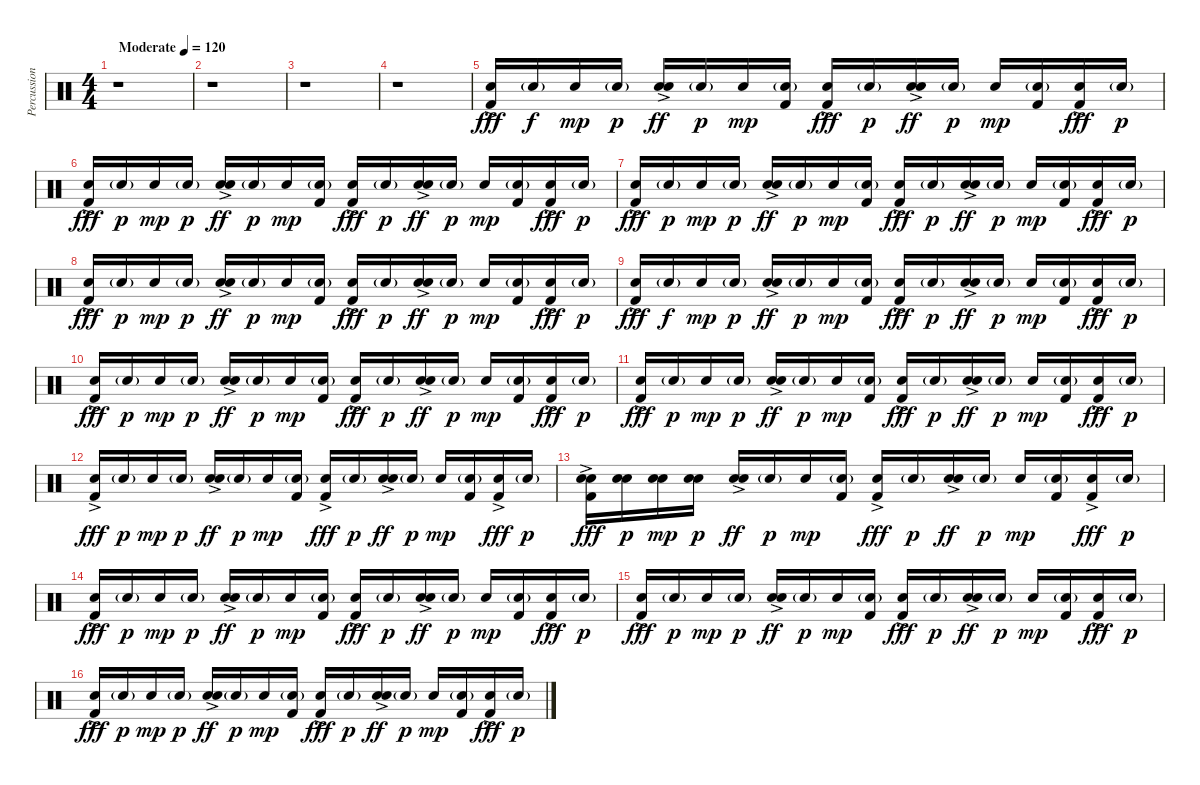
\track ("Percussion" "Percussion") {instrument percussion}
\staff {score}
\articulation defaults
\ts (4 4)
\tempo (120 "Moderate")
\clef neutral
\ks c
r.1{dy fff} |
r.1 |
r.1 |
r.1 |
("Electric Snare (hit)"{ac} "Kick (hit) 2"{ac}).16 "Electric Snare (hit)"{g}.16{dy f} "Electric Snare (hit)".16{dy mp} "Electric Snare (hit)"{g}.16{dy p} ("Electric Snare (hit)"{ac} "Snare (hit) 2").16{dy ff} "Electric Snare (hit)"{g}.16{dy p} "Electric Snare (hit)".16{dy mp} ("Electric Snare (hit)"{g} "Kick (hit) 2").16 ("Electric Snare (hit)" "Kick (hit) 2"{ac}).16{dy fff} "Electric Snare (hit)"{g}.16{dy p} ("Electric Snare (hit)"{ac} "Snare (hit) 2").16{dy ff} "Electric Snare (hit)"{g}.16{dy p} "Electric Snare (hit)".16{dy mp} ("Electric Snare (hit)"{g} "Kick (hit) 2").16 ("Electric Snare (hit)" "Kick (hit) 2"{ac}).16{dy fff} "Electric Snare (hit)"{g}.16{dy p} |
("Electric Snare (hit)" "Kick (hit) 2"{ac}).16{dy fff} "Electric Snare (hit)"{g}.16{dy p} "Electric Snare (hit)".16{dy mp} "Electric Snare (hit)"{g}.16{dy p} ("Electric Snare (hit)"{ac} "Snare (hit) 2").16{dy ff} "Electric Snare (hit)"{g}.16{dy p} "Electric Snare (hit)".16{dy mp} ("Electric Snare (hit)"{g} "Kick (hit) 2").16 ("Electric Snare (hit)" "Kick (hit) 2"{ac}).16{dy fff} "Electric Snare (hit)"{g}.16{dy p} ("Electric Snare (hit)"{ac} "Snare (hit) 2").16{dy ff} "Electric Snare (hit)"{g}.16{dy p} "Electric Snare (hit)".16{dy mp} ("Electric Snare (hit)"{g} "Kick (hit) 2").16 ("Electric Snare (hit)" "Kick (hit) 2"{ac}).16{dy fff} "Electric Snare (hit)"{g}.16{dy p} |
("Electric Snare (hit)" "Kick (hit) 2"{ac}).16{dy fff} "Electric Snare (hit)"{g}.16{dy p} "Electric Snare (hit)".16{dy mp} "Electric Snare (hit)"{g}.16{dy p} ("Electric Snare (hit)"{ac} "Snare (hit) 2").16{dy ff} "Electric Snare (hit)"{g}.16{dy p} "Electric Snare (hit)".16{dy mp} ("Electric Snare (hit)"{g} "Kick (hit) 2").16 ("Electric Snare (hit)" "Kick (hit) 2"{ac}).16{dy fff} "Electric Snare (hit)"{g}.16{dy p} ("Electric Snare (hit)"{ac} "Snare (hit) 2").16{dy ff} "Electric Snare (hit)"{g}.16{dy p} "Electric Snare (hit)".16{dy mp} ("Electric Snare (hit)"{g} "Kick (hit) 2").16 ("Electric Snare (hit)" "Kick (hit) 2"{ac}).16{dy fff} "Electric Snare (hit)"{g}.16{dy p} |
("Electric Snare (hit)" "Kick (hit) 2"{ac}).16{dy fff} "Electric Snare (hit)"{g}.16{dy p} "Electric Snare (hit)".16{dy mp} "Electric Snare (hit)"{g}.16{dy p} ("Electric Snare (hit)"{ac} "Snare (hit) 2").16{dy ff} "Electric Snare (hit)"{g}.16{dy p} "Electric Snare (hit)".16{dy mp} ("Electric Snare (hit)"{g} "Kick (hit) 2").16 ("Electric Snare (hit)" "Kick (hit) 2"{ac}).16{dy fff} "Electric Snare (hit)"{g}.16{dy p} ("Electric Snare (hit)"{ac} "Snare (hit) 2").16{dy ff} "Electric Snare (hit)"{g}.16{dy p} "Electric Snare (hit)".16{dy mp} ("Electric Snare (hit)"{g} "Kick (hit) 2").16 ("Electric Snare (hit)" "Kick (hit) 2"{ac}).16{dy fff} "Electric Snare (hit)"{g}.16{dy p} |
("Electric Snare (hit)"{ac} "Kick (hit) 2"{ac}).16{dy fff} "Electric Snare (hit)"{g}.16{dy f} "Electric Snare (hit)".16{dy mp} "Electric Snare (hit)"{g}.16{dy p} ("Electric Snare (hit)"{ac} "Snare (hit) 2").16{dy ff} "Electric Snare (hit)"{g}.16{dy p} "Electric Snare (hit)".16{dy mp} ("Electric Snare (hit)"{g} "Kick (hit) 2").16 ("Electric Snare (hit)" "Kick (hit) 2"{ac}).16{dy fff} "Electric Snare (hit)"{g}.16{dy p} ("Electric Snare (hit)"{ac} "Snare (hit) 2").16{dy ff} "Electric Snare (hit)"{g}.16{dy p} "Electric Snare (hit)".16{dy mp} ("Electric Snare (hit)"{g} "Kick (hit) 2").16 ("Electric Snare (hit)" "Kick (hit) 2"{ac}).16{dy fff} "Electric Snare (hit)"{g}.16{dy p} |
("Electric Snare (hit)" "Kick (hit) 2"{ac}).16{dy fff} "Electric Snare (hit)"{g}.16{dy p} "Electric Snare (hit)".16{dy mp} "Electric Snare (hit)"{g}.16{dy p} ("Electric Snare (hit)"{ac} "Snare (hit) 2").16{dy ff} "Electric Snare (hit)"{g}.16{dy p} "Electric Snare (hit)".16{dy mp} ("Electric Snare (hit)"{g} "Kick (hit) 2").16 ("Electric Snare (hit)" "Kick (hit) 2"{ac}).16{dy fff} "Electric Snare (hit)"{g}.16{dy p} ("Electric Snare (hit)"{ac} "Snare (hit) 2").16{dy ff} "Electric Snare (hit)"{g}.16{dy p} "Electric Snare (hit)".16{dy mp} ("Electric Snare (hit)"{g} "Kick (hit) 2").16 ("Electric Snare (hit)" "Kick (hit) 2"{ac}).16{dy fff} "Electric Snare (hit)"{g}.16{dy p} |
("Electric Snare (hit)" "Kick (hit) 2"{ac}).16{dy fff} "Electric Snare (hit)"{g}.16{dy p} "Electric Snare (hit)".16{dy mp} "Electric Snare (hit)"{g}.16{dy p} ("Electric Snare (hit)"{ac} "Snare (hit) 2").16{dy ff} "Electric Snare (hit)"{g}.16{dy p} "Electric Snare (hit)".16{dy mp} ("Electric Snare (hit)"{g} "Kick (hit) 2").16 ("Electric Snare (hit)" "Kick (hit) 2"{ac}).16{dy fff} "Electric Snare (hit)"{g}.16{dy p} ("Electric Snare (hit)"{ac} "Snare (hit) 2").16{dy ff} "Electric Snare (hit)"{g}.16{dy p} "Electric Snare (hit)".16{dy mp} ("Electric Snare (hit)"{g} "Kick (hit) 2").16 ("Electric Snare (hit)" "Kick (hit) 2"{ac}).16{dy fff} "Electric Snare (hit)"{g}.16{dy p} |
("Electric Snare (hit)" "Kick (hit) 2"{ac}).16{dy fff} "Electric Snare (hit)"{g}.16{dy p} "Electric Snare (hit)".16{dy mp} "Electric Snare (hit)"{g}.16{dy p} ("Electric Snare (hit)"{ac} "Snare (hit) 2").16{dy ff} "Electric Snare (hit)"{g}.16{dy p} "Electric Snare (hit)".16{dy mp} ("Electric Snare (hit)"{g} "Kick (hit) 2").16 ("Electric Snare (hit)" "Kick (hit) 2"{ac}).16{dy fff} "Electric Snare (hit)"{g}.16{dy p} ("Electric Snare (hit)"{ac} "Snare (hit) 2").16{dy ff} "Electric Snare (hit)"{g}.16{dy p} "Electric Snare (hit)".16{dy mp} ("Electric Snare (hit)"{g} "Kick (hit) 2").16 ("Electric Snare (hit)" "Kick (hit) 2"{ac}).16{dy fff} "Electric Snare (hit)"{g}.16{dy p} |
("Electric Snare (hit)" "Snare (hit) 2" "Kick (hit) 2"{ac}).16{dy fff} ("Electric Snare (hit)" "Snare (hit) 2").16{dy p} ("Electric Snare (hit)" "Snare (hit) 2").16{dy mp} ("Electric Snare (hit)" "Snare (hit) 2").16{dy p} ("Electric Snare (hit)"{ac} "Snare (hit) 2").16{dy ff} "Electric Snare (hit)"{g}.16{dy p} "Electric Snare (hit)".16{dy mp} ("Electric Snare (hit)"{g} "Kick (hit) 2").16 ("Electric Snare (hit)" "Kick (hit) 2"{ac}).16{dy fff} "Electric Snare (hit)"{g}.16{dy p} ("Electric Snare (hit)"{ac} "Snare (hit) 2").16{dy ff} "Electric Snare (hit)"{g}.16{dy p} "Electric Snare (hit)".16{dy mp} ("Electric Snare (hit)"{g} "Kick (hit) 2").16 ("Electric Snare (hit)" "Kick (hit) 2"{ac}).16{dy fff} "Electric Snare (hit)"{g}.16{dy p} |
("Electric Snare (hit)" "Kick (hit) 2"{ac}).16{dy fff} "Electric Snare (hit)"{g}.16{dy p} "Electric Snare (hit)".16{dy mp} "Electric Snare (hit)"{g}.16{dy p} ("Electric Snare (hit)"{ac} "Snare (hit) 2").16{dy ff} "Electric Snare (hit)"{g}.16{dy p} "Electric Snare (hit)".16{dy mp} ("Electric Snare (hit)"{g} "Kick (hit) 2").16 ("Electric Snare (hit)" "Kick (hit) 2"{ac}).16{dy fff} "Electric Snare (hit)"{g}.16{dy p} ("Electric Snare (hit)"{ac} "Snare (hit) 2").16{dy ff} "Electric Snare (hit)"{g}.16{dy p} "Electric Snare (hit)".16{dy mp} ("Electric Snare (hit)"{g} "Kick (hit) 2").16 ("Electric Snare (hit)" "Kick (hit) 2"{ac}).16{dy fff} "Electric Snare (hit)"{g}.16{dy p} |
("Electric Snare (hit)" "Kick (hit) 2"{ac}).16{dy fff} "Electric Snare (hit)"{g}.16{dy p} "Electric Snare (hit)".16{dy mp} "Electric Snare (hit)"{g}.16{dy p} ("Electric Snare (hit)"{ac} "Snare (hit) 2").16{dy ff} "Electric Snare (hit)"{g}.16{dy p} "Electric Snare (hit)".16{dy mp} ("Electric Snare (hit)"{g} "Kick (hit) 2").16 ("Electric Snare (hit)" "Kick (hit) 2"{ac}).16{dy fff} "Electric Snare (hit)"{g}.16{dy p} ("Electric Snare (hit)"{ac} "Snare (hit) 2").16{dy ff} "Electric Snare (hit)"{g}.16{dy p} "Electric Snare (hit)".16{dy mp} ("Electric Snare (hit)"{g} "Kick (hit) 2").16 ("Electric Snare (hit)" "Kick (hit) 2"{ac}).16{dy fff} "Electric Snare (hit)"{g}.16{dy p} |
("Electric Snare (hit)" "Kick (hit) 2"{ac}).16{dy fff} "Electric Snare (hit)"{g}.16{dy p} "Electric Snare (hit)".16{dy mp} "Electric Snare (hit)"{g}.16{dy p} ("Electric Snare (hit)"{ac} "Snare (hit) 2").16{dy ff} "Electric Snare (hit)"{g}.16{dy p} "Electric Snare (hit)".16{dy mp} ("Electric Snare (hit)"{g} "Kick (hit) 2").16 ("Electric Snare (hit)" "Kick (hit) 2"{ac}).16{dy fff} "Electric Snare (hit)"{g}.16{dy p} ("Electric Snare (hit)"{ac} "Snare (hit) 2").16{dy ff} "Electric Snare (hit)"{g}.16{dy p} "Electric Snare (hit)".16{dy mp} ("Electric Snare (hit)"{g} "Kick (hit) 2").16 ("Electric Snare (hit)" "Kick (hit) 2"{ac}).16{dy fff} "Electric Snare (hit)"{g}.16{dy p}
